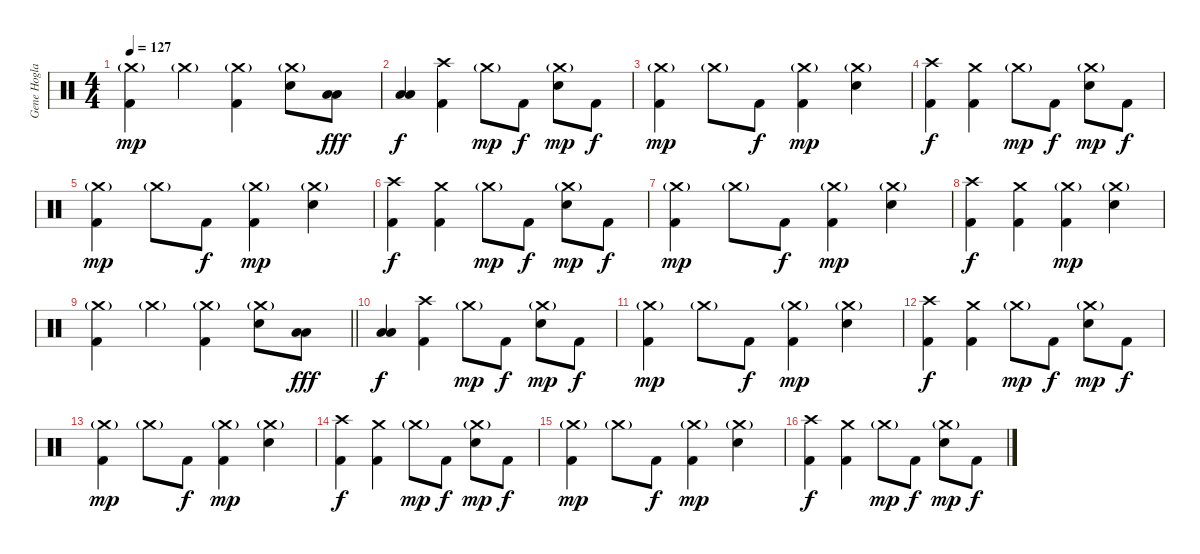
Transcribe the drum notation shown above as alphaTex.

\track ("Gene Hoglan" "Gene Hogla") {instrument percussion}
\staff {score}
\articulation defaults
\ts (4 4)
\tempo 127
\clef neutral
\ks c
("Crash medium (hit)"{g} "Kick (hit) 2").4{dy mp} "Crash medium (hit)"{g}.4 ("Crash medium (hit)"{g} "Kick (hit) 2").4 ("Crash medium (hit)"{g} "Electric Snare (hit)").8 ("Low Tom (hit)" "Low Tom (hit)").8{dy fff} |
("Low Tom (hit)" "Low Tom (hit)").4{dy f} ("Crash high (hit)" "Kick (hit) 2").4 "Crash medium (hit)"{g}.8{dy mp} "Kick (hit) 2".8{dy f} ("Crash medium (hit)"{g} "Electric Snare (hit)").8{dy mp} "Kick (hit) 2".8{dy f} |
("Crash medium (hit)"{g} "Kick (hit) 2").4{dy mp} "Crash medium (hit)"{g}.8 "Kick (hit) 2".8{dy f} ("Crash medium (hit)"{g} "Kick (hit) 2").4{dy mp} ("Crash medium (hit)"{g} "Electric Snare (hit)").4 |
("Crash high (hit)" "Kick (hit) 2").4{dy f} ("Crash medium (hit)" "Kick (hit) 2").4 "Crash medium (hit)"{g}.8{dy mp} "Kick (hit) 2".8{dy f} ("Crash medium (hit)"{g} "Electric Snare (hit)").8{dy mp} "Kick (hit) 2".8{dy f} |
("Crash medium (hit)"{g} "Kick (hit) 2").4{dy mp} "Crash medium (hit)"{g}.8 "Kick (hit) 2".8{dy f} ("Crash medium (hit)"{g} "Kick (hit) 2").4{dy mp} ("Crash medium (hit)"{g} "Electric Snare (hit)").4 |
("Crash high (hit)" "Kick (hit) 2").4{dy f} ("Crash medium (hit)" "Kick (hit) 2").4 "Crash medium (hit)"{g}.8{dy mp} "Kick (hit) 2".8{dy f} ("Crash medium (hit)"{g} "Electric Snare (hit)").8{dy mp} "Kick (hit) 2".8{dy f} |
("Crash medium (hit)"{g} "Kick (hit) 2").4{dy mp} "Crash medium (hit)"{g}.8 "Kick (hit) 2".8{dy f} ("Crash medium (hit)"{g} "Kick (hit) 2").4{dy mp} ("Crash medium (hit)"{g} "Electric Snare (hit)").4 |
("Crash high (hit)" "Kick (hit) 2").4{dy f} ("Crash medium (hit)" "Kick (hit) 2").4 ("Crash medium (hit)"{g} "Kick (hit) 2").4{dy mp} ("Crash medium (hit)"{g} "Electric Snare (hit)").4 |
\barLineRight lightlight
("Crash medium (hit)"{g} "Kick (hit) 2").4 "Crash medium (hit)"{g}.4 ("Crash medium (hit)"{g} "Kick (hit) 2").4 ("Crash medium (hit)"{g} "Electric Snare (hit)").8 ("Low Tom (hit)" "Low Tom (hit)").8{dy fff} |
("Low Tom (hit)" "Low Tom (hit)").4{dy f} ("Crash high (hit)" "Kick (hit) 2").4 "Crash medium (hit)"{g}.8{dy mp} "Kick (hit) 2".8{dy f} ("Crash medium (hit)"{g} "Electric Snare (hit)").8{dy mp} "Kick (hit) 2".8{dy f} |
("Crash medium (hit)"{g} "Kick (hit) 2").4{dy mp} "Crash medium (hit)"{g}.8 "Kick (hit) 2".8{dy f} ("Crash medium (hit)"{g} "Kick (hit) 2").4{dy mp} ("Crash medium (hit)"{g} "Electric Snare (hit)").4 |
("Crash high (hit)" "Kick (hit) 2").4{dy f} ("Crash medium (hit)" "Kick (hit) 2").4 "Crash medium (hit)"{g}.8{dy mp} "Kick (hit) 2".8{dy f} ("Crash medium (hit)"{g} "Electric Snare (hit)").8{dy mp} "Kick (hit) 2".8{dy f} |
("Crash medium (hit)"{g} "Kick (hit) 2").4{dy mp} "Crash medium (hit)"{g}.8 "Kick (hit) 2".8{dy f} ("Crash medium (hit)"{g} "Kick (hit) 2").4{dy mp} ("Crash medium (hit)"{g} "Electric Snare (hit)").4 |
("Crash high (hit)" "Kick (hit) 2").4{dy f} ("Crash medium (hit)" "Kick (hit) 2").4 "Crash medium (hit)"{g}.8{dy mp} "Kick (hit) 2".8{dy f} ("Crash medium (hit)"{g} "Electric Snare (hit)").8{dy mp} "Kick (hit) 2".8{dy f} |
("Crash medium (hit)"{g} "Kick (hit) 2").4{dy mp} "Crash medium (hit)"{g}.8 "Kick (hit) 2".8{dy f} ("Crash medium (hit)"{g} "Kick (hit) 2").4{dy mp} ("Crash medium (hit)"{g} "Electric Snare (hit)").4 |
("Crash high (hit)" "Kick (hit) 2").4{dy f} ("Crash medium (hit)" "Kick (hit) 2").4 "Crash medium (hit)"{g}.8{dy mp} "Kick (hit) 2".8{dy f} ("Crash medium (hit)"{g} "Electric Snare (hit)").8{dy mp} "Kick (hit) 2".8{dy f}
